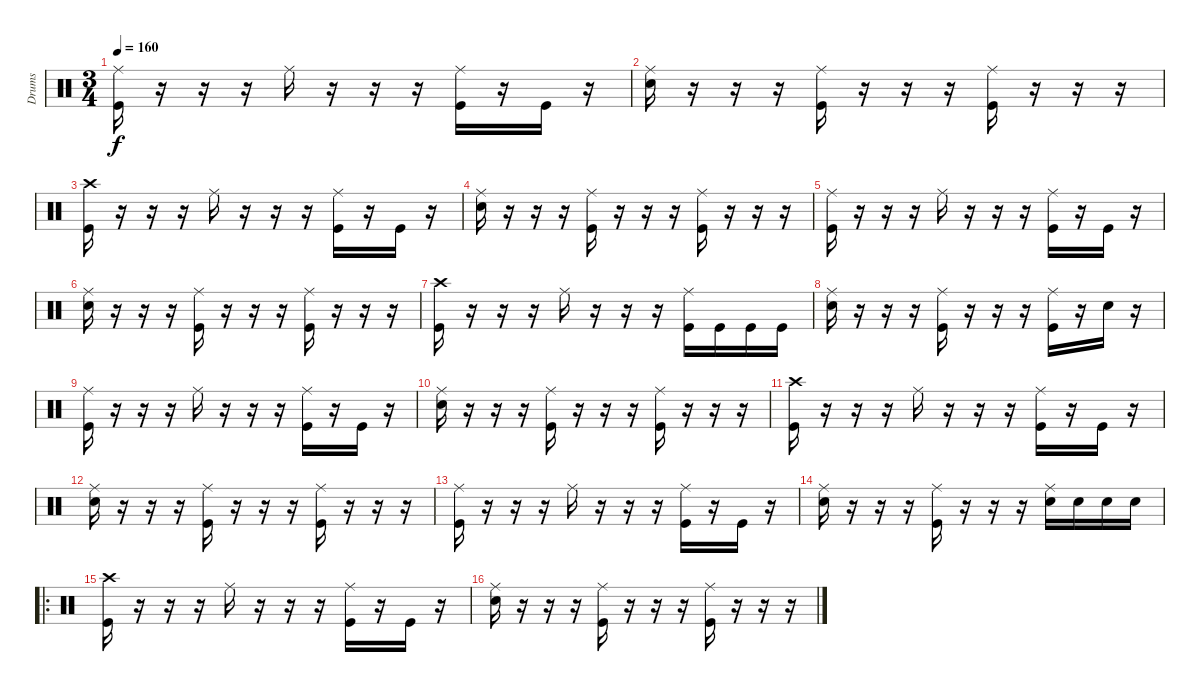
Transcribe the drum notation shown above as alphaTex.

\track ("Drums" "Drums") {instrument percussion}
\staff {score}
\articulation defaults
\ts (3 4)
\tempo 160
\clef neutral
\ks c
("Ride (middle)" "Kick (hit)").16{dy f} r.16 r.16 r.16 "Ride (middle)".16 r.16 r.16 r.16 ("Ride (middle)" "Kick (hit)").16 r.16 "Kick (hit)".16 r.16 |
("Ride (middle)" "Snare (hit) 2").16 r.16 r.16 r.16 ("Ride (middle)" "Kick (hit)").16 r.16 r.16 r.16 ("Ride (middle)" "Kick (hit)").16 r.16 r.16 r.16 |
("Crash high (hit)" "Kick (hit)").16 r.16 r.16 r.16 "Ride (middle)".16 r.16 r.16 r.16 ("Ride (middle)" "Kick (hit)").16 r.16 "Kick (hit)".16 r.16 |
("Ride (middle)" "Snare (hit) 2").16 r.16 r.16 r.16 ("Ride (middle)" "Kick (hit)").16 r.16 r.16 r.16 ("Ride (middle)" "Kick (hit)").16 r.16 r.16 r.16 |
("Ride (middle)" "Kick (hit)").16 r.16 r.16 r.16 "Ride (middle)".16 r.16 r.16 r.16 ("Ride (middle)" "Kick (hit)").16 r.16 "Kick (hit)".16 r.16 |
("Ride (middle)" "Snare (hit) 2").16 r.16 r.16 r.16 ("Ride (middle)" "Kick (hit)").16 r.16 r.16 r.16 ("Ride (middle)" "Kick (hit)").16 r.16 r.16 r.16 |
("Crash high (hit)" "Kick (hit)").16 r.16 r.16 r.16 "Ride (middle)".16 r.16 r.16 r.16 ("Ride (middle)" "Kick (hit)").16 "Kick (hit)".16 "Kick (hit)".16 "Kick (hit)".16 |
("Ride (middle)" "Snare (hit) 2").16 r.16 r.16 r.16 ("Ride (middle)" "Kick (hit)").16 r.16 r.16 r.16 ("Ride (middle)" "Kick (hit)").16 r.16 "Snare (hit) 2".16 r.16 |
("Ride (middle)" "Kick (hit)").16 r.16 r.16 r.16 "Ride (middle)".16 r.16 r.16 r.16 ("Ride (middle)" "Kick (hit)").16 r.16 "Kick (hit)".16 r.16 |
("Ride (middle)" "Snare (hit) 2").16 r.16 r.16 r.16 ("Ride (middle)" "Kick (hit)").16 r.16 r.16 r.16 ("Ride (middle)" "Kick (hit)").16 r.16 r.16 r.16 |
("Crash high (hit)" "Kick (hit)").16 r.16 r.16 r.16 "Ride (middle)".16 r.16 r.16 r.16 ("Ride (middle)" "Kick (hit)").16 r.16 "Kick (hit)".16 r.16 |
("Ride (middle)" "Snare (hit) 2").16 r.16 r.16 r.16 ("Ride (middle)" "Kick (hit)").16 r.16 r.16 r.16 ("Ride (middle)" "Kick (hit)").16 r.16 r.16 r.16 |
("Ride (middle)" "Kick (hit)").16 r.16 r.16 r.16 "Ride (middle)".16 r.16 r.16 r.16 ("Ride (middle)" "Kick (hit)").16 r.16 "Kick (hit)".16 r.16 |
("Ride (middle)" "Snare (hit) 2").16 r.16 r.16 r.16 ("Ride (middle)" "Kick (hit)").16 r.16 r.16 r.16 ("Ride (middle)" "Snare (hit) 2").16 "Snare (hit) 2".16 "Snare (hit) 2".16 "Snare (hit) 2".16 |
\ro
("Crash high (hit)" "Kick (hit)").16 r.16 r.16 r.16 "Ride (middle)".16 r.16 r.16 r.16 ("Ride (middle)" "Kick (hit)").16 r.16 "Kick (hit)".16 r.16 |
("Ride (middle)" "Snare (hit) 2").16 r.16 r.16 r.16 ("Ride (middle)" "Kick (hit)").16 r.16 r.16 r.16 ("Ride (middle)" "Kick (hit)").16 r.16 r.16 r.16
